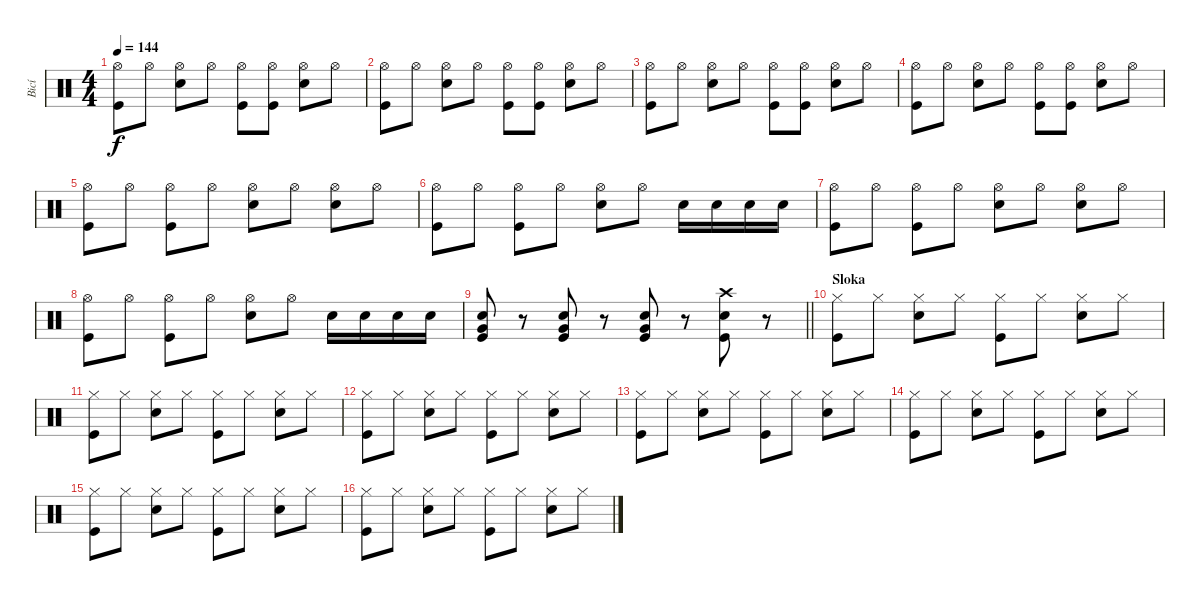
\track ("Bicí" "Bicí") {instrument percussion}
\staff
\articulation defaults
\ts (4 4)
\tempo 144
\clef neutral
\ks c
("Hi-Hat (open)" "Kick (hit)").8{dy f} "Hi-Hat (open)".8 ("Hi-Hat (open)" "Electric Snare (hit)").8 "Hi-Hat (open)".8 ("Hi-Hat (open)" "Kick (hit)").8 ("Hi-Hat (open)" "Kick (hit)").8 ("Hi-Hat (open)" "Electric Snare (hit)").8 "Hi-Hat (open)".8 |
("Hi-Hat (open)" "Kick (hit)").8 "Hi-Hat (open)".8 ("Hi-Hat (open)" "Electric Snare (hit)").8 "Hi-Hat (open)".8 ("Hi-Hat (open)" "Kick (hit)").8 ("Hi-Hat (open)" "Kick (hit)").8 ("Hi-Hat (open)" "Electric Snare (hit)").8 "Hi-Hat (open)".8 |
("Hi-Hat (open)" "Kick (hit)").8 "Hi-Hat (open)".8 ("Hi-Hat (open)" "Electric Snare (hit)").8 "Hi-Hat (open)".8 ("Hi-Hat (open)" "Kick (hit)").8 ("Hi-Hat (open)" "Kick (hit)").8 ("Hi-Hat (open)" "Electric Snare (hit)").8 "Hi-Hat (open)".8 |
("Hi-Hat (open)" "Kick (hit)").8 "Hi-Hat (open)".8 ("Hi-Hat (open)" "Electric Snare (hit)").8 "Hi-Hat (open)".8 ("Hi-Hat (open)" "Kick (hit)").8 ("Hi-Hat (open)" "Kick (hit)").8 ("Hi-Hat (open)" "Electric Snare (hit)").8 "Hi-Hat (open)".8 |
("Hi-Hat (open)" "Kick (hit)").8 "Hi-Hat (open)".8 ("Hi-Hat (open)" "Kick (hit)").8 "Hi-Hat (open)".8 ("Hi-Hat (open)" "Electric Snare (hit)").8 "Hi-Hat (open)".8 ("Hi-Hat (open)" "Electric Snare (hit)").8 "Hi-Hat (open)".8 |
("Hi-Hat (open)" "Kick (hit)").8 "Hi-Hat (open)".8 ("Hi-Hat (open)" "Kick (hit)").8 "Hi-Hat (open)".8 ("Hi-Hat (open)" "Electric Snare (hit)").8 "Hi-Hat (open)".8 "Electric Snare (hit)".16 "Electric Snare (hit)".16 "Electric Snare (hit)".16 "Electric Snare (hit)".16 |
("Hi-Hat (open)" "Kick (hit)").8 "Hi-Hat (open)".8 ("Hi-Hat (open)" "Kick (hit)").8 "Hi-Hat (open)".8 ("Hi-Hat (open)" "Electric Snare (hit)").8 "Hi-Hat (open)".8 ("Hi-Hat (open)" "Electric Snare (hit)").8 "Hi-Hat (open)".8 |
("Hi-Hat (open)" "Kick (hit)").8 "Hi-Hat (open)".8 ("Hi-Hat (open)" "Kick (hit)").8 "Hi-Hat (open)".8 ("Hi-Hat (open)" "Electric Snare (hit)").8 "Hi-Hat (open)".8 "Electric Snare (hit)".16 "Electric Snare (hit)".16 "Electric Snare (hit)".16 "Electric Snare (hit)".16 |
\barLineRight lightlight
("Very Low Tom (hit)" "Electric Snare (hit)" "Kick (hit)").8 r.8 ("Very Low Tom (hit)" "Kick (hit)" "Electric Snare (hit)").8 r.8 ("Very Low Tom (hit)" "Electric Snare (hit)" "Kick (hit)").8 r.8 ("Crash high (hit)" "Electric Snare (hit)" "Kick (hit)").8 r.8 |
\section ("" "Sloka")
("Hi-Hat (closed)" "Kick (hit)").8 "Hi-Hat (closed)".8 ("Hi-Hat (closed)" "Electric Snare (hit)").8 "Hi-Hat (closed)".8 ("Hi-Hat (closed)" "Kick (hit)").8 "Hi-Hat (closed)".8 ("Hi-Hat (closed)" "Electric Snare (hit)").8 "Hi-Hat (closed)".8 |
("Hi-Hat (closed)" "Kick (hit)").8 "Hi-Hat (closed)".8 ("Hi-Hat (closed)" "Electric Snare (hit)").8 "Hi-Hat (closed)".8 ("Hi-Hat (closed)" "Kick (hit)").8 "Hi-Hat (closed)".8 ("Hi-Hat (closed)" "Electric Snare (hit)").8 "Hi-Hat (closed)".8 |
("Hi-Hat (closed)" "Kick (hit)").8 "Hi-Hat (closed)".8 ("Hi-Hat (closed)" "Electric Snare (hit)").8 "Hi-Hat (closed)".8 ("Hi-Hat (closed)" "Kick (hit)").8 "Hi-Hat (closed)".8 ("Hi-Hat (closed)" "Electric Snare (hit)").8 "Hi-Hat (closed)".8 |
("Hi-Hat (closed)" "Kick (hit)").8 "Hi-Hat (closed)".8 ("Hi-Hat (closed)" "Electric Snare (hit)").8 "Hi-Hat (closed)".8 ("Hi-Hat (closed)" "Kick (hit)").8 "Hi-Hat (closed)".8 ("Hi-Hat (closed)" "Electric Snare (hit)").8 "Hi-Hat (closed)".8 |
("Hi-Hat (closed)" "Kick (hit)").8 "Hi-Hat (closed)".8 ("Hi-Hat (closed)" "Electric Snare (hit)").8 "Hi-Hat (closed)".8 ("Hi-Hat (closed)" "Kick (hit)").8 "Hi-Hat (closed)".8 ("Hi-Hat (closed)" "Electric Snare (hit)").8 "Hi-Hat (closed)".8 |
("Hi-Hat (closed)" "Kick (hit)").8 "Hi-Hat (closed)".8 ("Hi-Hat (closed)" "Electric Snare (hit)").8 "Hi-Hat (closed)".8 ("Hi-Hat (closed)" "Kick (hit)").8 "Hi-Hat (closed)".8 ("Hi-Hat (closed)" "Electric Snare (hit)").8 "Hi-Hat (closed)".8 |
("Hi-Hat (closed)" "Kick (hit)").8 "Hi-Hat (closed)".8 ("Hi-Hat (closed)" "Electric Snare (hit)").8 "Hi-Hat (closed)".8 ("Hi-Hat (closed)" "Kick (hit)").8 "Hi-Hat (closed)".8 ("Hi-Hat (closed)" "Electric Snare (hit)").8 "Hi-Hat (closed)".8
